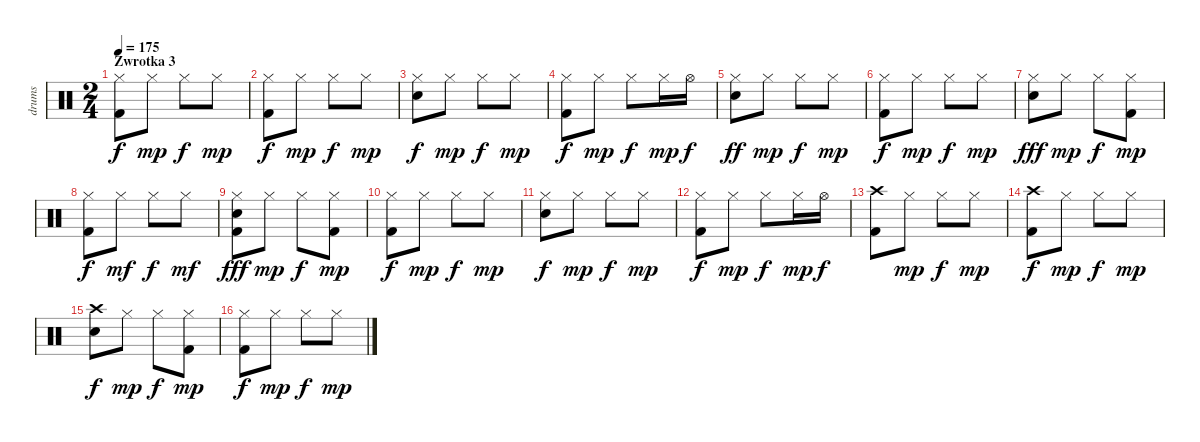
\track ("drums" "drums") {instrument percussion}
\staff {score}
\articulation defaults
\ts (2 4)
\section ("" "Zwrotka 3")
\tempo 175
\clef neutral
\ks c
("Hi-Hat (closed)" "Kick (hit) 2").8{dy f} "Hi-Hat (closed)".8{dy mp} "Hi-Hat (closed)".8{dy f} "Hi-Hat (closed)".8{dy mp} |
("Hi-Hat (closed)" "Kick (hit) 2").8{dy f} "Hi-Hat (closed)".8{dy mp} "Hi-Hat (closed)".8{dy f} "Hi-Hat (closed)".8{dy mp} |
("Hi-Hat (closed)" "Snare (hit) 2").8{dy f} "Hi-Hat (closed)".8{dy mp} "Hi-Hat (closed)".8{dy f} "Hi-Hat (closed)".8{dy mp} |
("Hi-Hat (closed)" "Kick (hit) 2").8{dy f} "Hi-Hat (closed)".8{dy mp} "Hi-Hat (closed)".8{dy f} "Hi-Hat (closed)".16{dy mp} "Hi-Hat (open)".16{dy f} |
("Hi-Hat (closed)" "Snare (hit) 2").8{dy ff} "Hi-Hat (closed)".8{dy mp} "Hi-Hat (closed)".8{dy f} "Hi-Hat (closed)".8{dy mp} |
("Hi-Hat (closed)" "Kick (hit) 2").8{dy f} "Hi-Hat (closed)".8{dy mp} "Hi-Hat (closed)".8{dy f} "Hi-Hat (closed)".8{dy mp} |
("Hi-Hat (closed)" "Snare (hit) 2").8{dy fff} "Hi-Hat (closed)".8{dy mp} "Hi-Hat (closed)".8{dy f} ("Hi-Hat (closed)" "Kick (hit) 2").8{dy mp} |
("Hi-Hat (closed)" "Kick (hit) 2").8{dy f} "Hi-Hat (closed)".8{dy mf} "Hi-Hat (closed)".8{dy f} "Hi-Hat (closed)".8{dy mf} |
("Hi-Hat (closed)" "Snare (hit) 2" "Kick (hit) 2").8{dy fff} "Hi-Hat (closed)".8{dy mp} "Hi-Hat (closed)".8{dy f} ("Hi-Hat (closed)" "Kick (hit) 2").8{dy mp} |
("Hi-Hat (closed)" "Kick (hit) 2").8{dy f} "Hi-Hat (closed)".8{dy mp} "Hi-Hat (closed)".8{dy f} "Hi-Hat (closed)".8{dy mp} |
("Hi-Hat (closed)" "Snare (hit) 2").8{dy f} "Hi-Hat (closed)".8{dy mp} "Hi-Hat (closed)".8{dy f} "Hi-Hat (closed)".8{dy mp} |
("Hi-Hat (closed)" "Kick (hit) 2").8{dy f} "Hi-Hat (closed)".8{dy mp} "Hi-Hat (closed)".8{dy f} "Hi-Hat (closed)".16{dy mp} "Hi-Hat (open)".16{dy f} |
("Crash high (hit)" "Kick (hit) 2").8 "Hi-Hat (closed)".8{dy mp} "Hi-Hat (closed)".8{dy f} "Hi-Hat (closed)".8{dy mp} |
("Crash high (hit)" "Kick (hit) 2").8{dy f} "Hi-Hat (closed)".8{dy mp} "Hi-Hat (closed)".8{dy f} "Hi-Hat (closed)".8{dy mp} |
("Crash high (hit)" "Snare (hit) 2").8{dy f} "Hi-Hat (closed)".8{dy mp} "Hi-Hat (closed)".8{dy f} ("Hi-Hat (closed)" "Kick (hit) 2").8{dy mp} |
("Hi-Hat (closed)" "Kick (hit) 2").8{dy f} "Hi-Hat (closed)".8{dy mp} "Hi-Hat (closed)".8{dy f} "Hi-Hat (closed)".8{dy mp}
